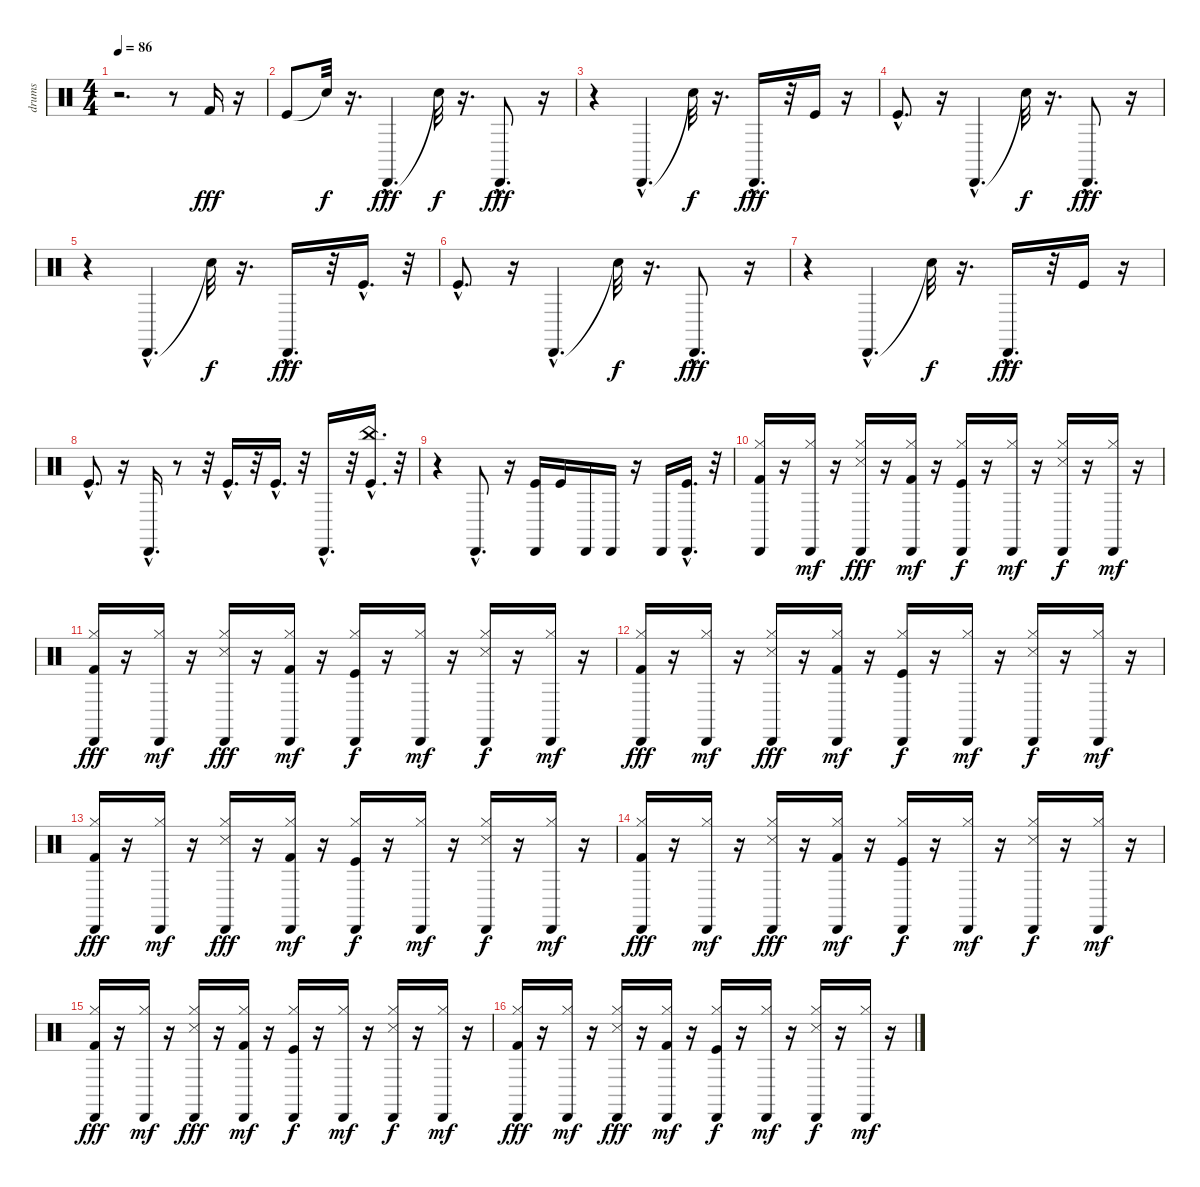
\track ("drums" "drums") {instrument percussion}
\staff {score}
\articulation defaults
\ts (4 4)
\tempo 86
\clef neutral
\ks c
r.2{d dy fff} r.8 "Kick (hit) 2".16 r.16 |
"Kick (hit)".8 "Snare (hit)"{t}.32{dy f} r.16{d} "Cabasa (hit)"{hac}.4{d dy fff} "Snare (hit)"{t}.32{dy f} r.16{d} "Cabasa (hit)"{hac}.8{d dy fff} r.16 |
r.4 "Cabasa (hit)"{hac}.4{d} "Snare (hit)"{t}.32{dy f} r.16{d} "Cabasa (hit)"{hac}.16{d dy fff} r.32 "Kick (hit)".16 r.16 |
"Kick (hit)"{hac}.8{d} r.16 "Cabasa (hit)"{hac}.4{d} "Snare (hit)"{t}.32{dy f} r.16{d} "Cabasa (hit)"{hac}.8{d dy fff} r.16 |
r.4 "Cabasa (hit)"{hac}.4{d} "Snare (hit)"{t}.32{dy f} r.16{d} "Cabasa (hit)"{hac}.16{d dy fff} r.32 "Kick (hit)"{hac}.16{d} r.32 |
"Kick (hit)"{hac}.8{d} r.16 "Cabasa (hit)"{hac}.4{d} "Snare (hit)"{t}.32{dy f} r.16{d} "Cabasa (hit)"{hac}.8{d dy fff} r.16 |
r.4 "Cabasa (hit)"{hac}.4{d} "Snare (hit)"{t}.32{dy f} r.16{d} "Cabasa (hit)"{hac}.16{d dy fff} r.32 "Kick (hit)".16 r.16 |
"Kick (hit)"{hac}.8{d} r.16 "Cabasa (hit)"{hac}.16{d} r.8 r.32 "Kick (hit)"{hac}.16{d} r.32 "Kick (hit)"{hac}.16{d} r.32 "Cabasa (hit)"{hac}.16{d} r.32 ("China (hit)"{hac} "Kick (hit)").16{d} r.32 |
r.4 "Cabasa (hit)"{hac}.8{d} r.16 ("Kick (hit)" "Cabasa (hit)").16 "Kick (hit)".16 "Cabasa (hit)".16 "Cabasa (hit)".16 r.16 "Cabasa (hit)".16 ("Kick (hit)" "Cabasa (hit)"{hac}).16{d} r.32 |
("Kick (hit) 2" "Hi-Hat (closed)" "Cabasa (hit)").16 r.16 ("Hi-Hat (closed)" "Cabasa (hit)").16{dy mf} r.16 ("Snare (side stick) 3" "Hi-Hat (closed)" "Cabasa (hit)").16{dy fff} r.16 ("Kick (hit) 2" "Hi-Hat (closed)" "Cabasa (hit)").16{dy mf} r.16 ("Kick (hit)" "Hi-Hat (closed)" "Cabasa (hit)").16{dy f} r.16 ("Hi-Hat (closed)" "Cabasa (hit)").16{dy mf} r.16 ("Snare (side stick) 3" "Hi-Hat (closed)" "Cabasa (hit)").16{dy f} r.16 ("Hi-Hat (closed)" "Cabasa (hit)").16{dy mf} r.16 |
("Kick (hit) 2" "Hi-Hat (closed)" "Cabasa (hit)").16{dy fff} r.16 ("Hi-Hat (closed)" "Cabasa (hit)").16{dy mf} r.16 ("Snare (side stick) 3" "Hi-Hat (closed)" "Cabasa (hit)").16{dy fff} r.16 ("Kick (hit) 2" "Hi-Hat (closed)" "Cabasa (hit)").16{dy mf} r.16 ("Kick (hit)" "Hi-Hat (closed)" "Cabasa (hit)").16{dy f} r.16 ("Hi-Hat (closed)" "Cabasa (hit)").16{dy mf} r.16 ("Snare (side stick) 3" "Hi-Hat (closed)" "Cabasa (hit)").16{dy f} r.16 ("Hi-Hat (closed)" "Cabasa (hit)").16{dy mf} r.16 |
("Kick (hit) 2" "Hi-Hat (closed)" "Cabasa (hit)").16{dy fff} r.16 ("Hi-Hat (closed)" "Cabasa (hit)").16{dy mf} r.16 ("Snare (side stick) 3" "Hi-Hat (closed)" "Cabasa (hit)").16{dy fff} r.16 ("Kick (hit) 2" "Hi-Hat (closed)" "Cabasa (hit)").16{dy mf} r.16 ("Kick (hit)" "Hi-Hat (closed)" "Cabasa (hit)").16{dy f} r.16 ("Hi-Hat (closed)" "Cabasa (hit)").16{dy mf} r.16 ("Snare (side stick) 3" "Hi-Hat (closed)" "Cabasa (hit)").16{dy f} r.16 ("Hi-Hat (closed)" "Cabasa (hit)").16{dy mf} r.16 |
("Kick (hit) 2" "Hi-Hat (closed)" "Cabasa (hit)").16{dy fff} r.16 ("Hi-Hat (closed)" "Cabasa (hit)").16{dy mf} r.16 ("Snare (side stick) 3" "Hi-Hat (closed)" "Cabasa (hit)").16{dy fff} r.16 ("Kick (hit) 2" "Hi-Hat (closed)" "Cabasa (hit)").16{dy mf} r.16 ("Kick (hit)" "Hi-Hat (closed)" "Cabasa (hit)").16{dy f} r.16 ("Hi-Hat (closed)" "Cabasa (hit)").16{dy mf} r.16 ("Snare (side stick) 3" "Hi-Hat (closed)" "Cabasa (hit)").16{dy f} r.16 ("Hi-Hat (closed)" "Cabasa (hit)").16{dy mf} r.16 |
("Kick (hit) 2" "Hi-Hat (closed)" "Cabasa (hit)").16{dy fff} r.16 ("Hi-Hat (closed)" "Cabasa (hit)").16{dy mf} r.16 ("Snare (side stick) 3" "Hi-Hat (closed)" "Cabasa (hit)").16{dy fff} r.16 ("Kick (hit) 2" "Hi-Hat (closed)" "Cabasa (hit)").16{dy mf} r.16 ("Kick (hit)" "Hi-Hat (closed)" "Cabasa (hit)").16{dy f} r.16 ("Hi-Hat (closed)" "Cabasa (hit)").16{dy mf} r.16 ("Snare (side stick) 3" "Hi-Hat (closed)" "Cabasa (hit)").16{dy f} r.16 ("Hi-Hat (closed)" "Cabasa (hit)").16{dy mf} r.16 |
("Kick (hit) 2" "Hi-Hat (closed)" "Cabasa (hit)").16{dy fff} r.16 ("Hi-Hat (closed)" "Cabasa (hit)").16{dy mf} r.16 ("Snare (side stick) 3" "Hi-Hat (closed)" "Cabasa (hit)").16{dy fff} r.16 ("Kick (hit) 2" "Hi-Hat (closed)" "Cabasa (hit)").16{dy mf} r.16 ("Kick (hit)" "Hi-Hat (closed)" "Cabasa (hit)").16{dy f} r.16 ("Hi-Hat (closed)" "Cabasa (hit)").16{dy mf} r.16 ("Snare (side stick) 3" "Hi-Hat (closed)" "Cabasa (hit)").16{dy f} r.16 ("Hi-Hat (closed)" "Cabasa (hit)").16{dy mf} r.16 |
("Kick (hit) 2" "Hi-Hat (closed)" "Cabasa (hit)").16{dy fff} r.16 ("Hi-Hat (closed)" "Cabasa (hit)").16{dy mf} r.16 ("Snare (side stick) 3" "Hi-Hat (closed)" "Cabasa (hit)").16{dy fff} r.16 ("Kick (hit) 2" "Hi-Hat (closed)" "Cabasa (hit)").16{dy mf} r.16 ("Kick (hit)" "Hi-Hat (closed)" "Cabasa (hit)").16{dy f} r.16 ("Hi-Hat (closed)" "Cabasa (hit)").16{dy mf} r.16 ("Snare (side stick) 3" "Hi-Hat (closed)" "Cabasa (hit)").16{dy f} r.16 ("Hi-Hat (closed)" "Cabasa (hit)").16{dy mf} r.16
